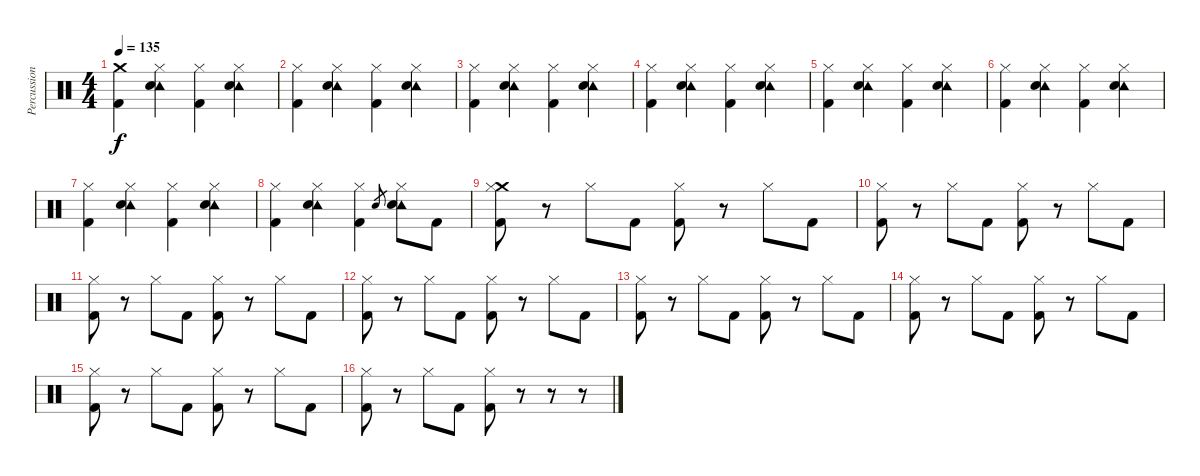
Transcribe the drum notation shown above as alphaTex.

\track ("Percussion" "Percussion") {instrument percussion}
\staff {score}
\articulation defaults
\ts (4 4)
\section ("" "")
\tempo 135
\clef neutral
\ks c
("Crash medium (hit)" "Kick (hit) 2").4{dy f} ("Hi-Hat (closed)" "Tambourine (hit)" "Electric Snare (hit)").4 ("Hi-Hat (closed)" "Kick (hit) 2").4 ("Hi-Hat (closed)" "Tambourine (hit)" "Electric Snare (hit)").4 |
("Hi-Hat (closed)" "Kick (hit) 2").4 ("Hi-Hat (closed)" "Tambourine (hit)" "Electric Snare (hit)").4 ("Hi-Hat (closed)" "Kick (hit) 2").4 ("Hi-Hat (closed)" "Tambourine (hit)" "Electric Snare (hit)").4 |
("Hi-Hat (closed)" "Kick (hit) 2").4 ("Hi-Hat (closed)" "Tambourine (hit)" "Electric Snare (hit)").4 ("Hi-Hat (closed)" "Kick (hit) 2").4 ("Hi-Hat (closed)" "Tambourine (hit)" "Electric Snare (hit)").4 |
("Hi-Hat (closed)" "Kick (hit) 2").4 ("Hi-Hat (closed)" "Tambourine (hit)" "Electric Snare (hit)").4 ("Hi-Hat (closed)" "Kick (hit) 2").4 ("Hi-Hat (closed)" "Tambourine (hit)" "Electric Snare (hit)").4 |
("Hi-Hat (closed)" "Kick (hit) 2").4 ("Hi-Hat (closed)" "Tambourine (hit)" "Electric Snare (hit)").4 ("Hi-Hat (closed)" "Kick (hit) 2").4 ("Hi-Hat (closed)" "Tambourine (hit)" "Electric Snare (hit)").4 |
("Hi-Hat (closed)" "Kick (hit) 2").4 ("Hi-Hat (closed)" "Tambourine (hit)" "Electric Snare (hit)").4 ("Hi-Hat (closed)" "Kick (hit) 2").4 ("Hi-Hat (closed)" "Tambourine (hit)" "Electric Snare (hit)").4 |
("Hi-Hat (closed)" "Kick (hit) 2").4 ("Hi-Hat (closed)" "Tambourine (hit)" "Electric Snare (hit)").4 ("Hi-Hat (closed)" "Kick (hit) 2").4 ("Hi-Hat (closed)" "Tambourine (hit)" "Electric Snare (hit)").4 |
("Hi-Hat (closed)" "Kick (hit) 2").4 ("Hi-Hat (closed)" "Tambourine (hit)" "Electric Snare (hit)").4 ("Hi-Hat (closed)" "Kick (hit) 2").4 "Electric Snare (hit)".8{gr} ("Hi-Hat (closed)" "Tambourine (hit)" "Electric Snare (hit)").8 "Kick (hit) 2".8 |
\section ("" "")
("Crash medium (hit)" "Hi-Hat (closed)" "Kick (hit) 2").8 r.8 "Hi-Hat (closed)".8 "Kick (hit) 2".8 ("Hi-Hat (closed)" "Kick (hit) 2").8 r.8 "Hi-Hat (closed)".8 "Kick (hit) 2".8 |
("Hi-Hat (closed)" "Kick (hit) 2").8 r.8 "Hi-Hat (closed)".8 "Kick (hit) 2".8 ("Hi-Hat (closed)" "Kick (hit) 2").8 r.8 "Hi-Hat (closed)".8 "Kick (hit) 2".8 |
("Hi-Hat (closed)" "Kick (hit) 2").8 r.8 "Hi-Hat (closed)".8 "Kick (hit) 2".8 ("Hi-Hat (closed)" "Kick (hit) 2").8 r.8 "Hi-Hat (closed)".8 "Kick (hit) 2".8 |
("Hi-Hat (closed)" "Kick (hit) 2").8 r.8 "Hi-Hat (closed)".8 "Kick (hit) 2".8 ("Hi-Hat (closed)" "Kick (hit) 2").8 r.8 "Hi-Hat (closed)".8 "Kick (hit) 2".8 |
("Hi-Hat (closed)" "Kick (hit) 2").8 r.8 "Hi-Hat (closed)".8 "Kick (hit) 2".8 ("Hi-Hat (closed)" "Kick (hit) 2").8 r.8 "Hi-Hat (closed)".8 "Kick (hit) 2".8 |
("Hi-Hat (closed)" "Kick (hit) 2").8 r.8 "Hi-Hat (closed)".8 "Kick (hit) 2".8 ("Hi-Hat (closed)" "Kick (hit) 2").8 r.8 "Hi-Hat (closed)".8 "Kick (hit) 2".8 |
("Hi-Hat (closed)" "Kick (hit) 2").8 r.8 "Hi-Hat (closed)".8 "Kick (hit) 2".8 ("Hi-Hat (closed)" "Kick (hit) 2").8 r.8 "Hi-Hat (closed)".8 "Kick (hit) 2".8 |
("Hi-Hat (closed)" "Kick (hit) 2").8 r.8 "Hi-Hat (closed)".8 "Kick (hit) 2".8 ("Hi-Hat (closed)" "Kick (hit) 2").8 r.8 r.8 r.8
